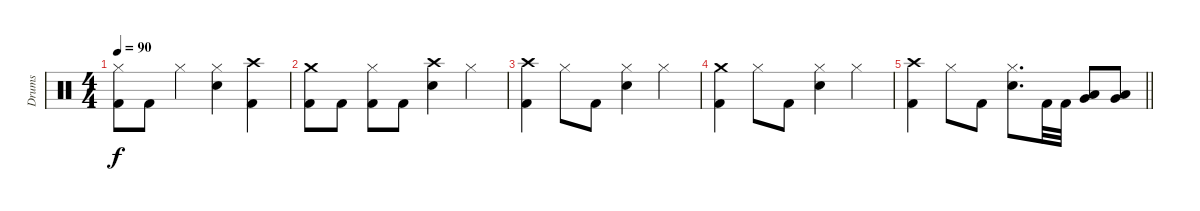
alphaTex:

\track ("Drums" "Drums") {instrument percussion}
\staff {score}
\articulation defaults
\ts (4 4)
\tempo 90
\clef neutral
\ks c
("Hi-Hat (closed)" "Kick (hit) 2").8{dy f} "Kick (hit) 2".8 "Hi-Hat (closed)".4 ("Hi-Hat (closed)" "Snare (hit) 2").4 ("Crash high (hit)" "Kick (hit) 2").4 |
("Crash medium (hit)" "Kick (hit) 2").8 "Kick (hit) 2".8 ("Hi-Hat (closed)" "Kick (hit) 2").8 "Kick (hit) 2".8 ("Crash high (hit)" "Snare (hit) 2").4 "Hi-Hat (closed)".4 |
("Crash high (hit)" "Kick (hit) 2").4 "Hi-Hat (closed)".8 "Kick (hit) 2".8 ("Hi-Hat (closed)" "Snare (hit) 2").4 "Hi-Hat (closed)".4 |
("Crash medium (hit)" "Kick (hit) 2").4 "Hi-Hat (closed)".8 "Kick (hit) 2".8 ("Hi-Hat (closed)" "Snare (hit) 2").4 "Hi-Hat (closed)".4 |
\barLineRight lightlight
("Crash high (hit)" "Kick (hit) 2").4 "Hi-Hat (closed)".8 "Kick (hit) 2".8 ("Hi-Hat (closed)" "Snare (hit) 2").8{d} "Kick (hit) 2".32 "Kick (hit) 2".32 ("Low Tom (hit)" "Very Low Tom (hit)").8 ("Low Tom (hit)" "Very Low Tom (hit)").8
